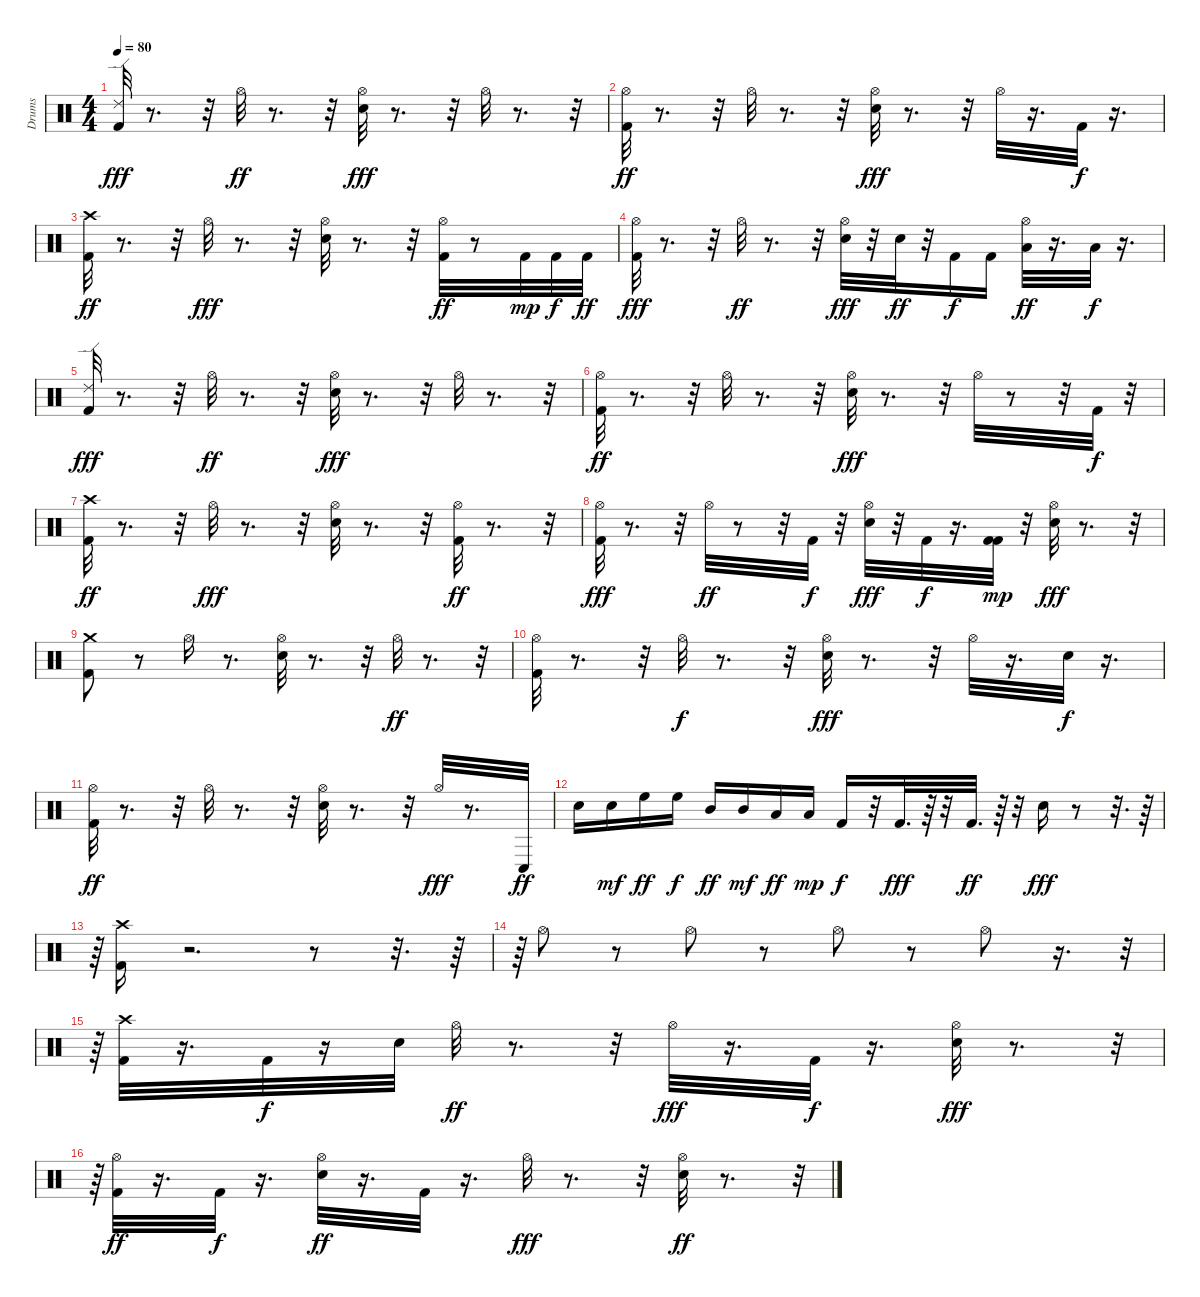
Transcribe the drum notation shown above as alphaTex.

\track ("Drums" "Drums") {instrument percussion}
\staff {score}
\articulation defaults
\ts (4 4)
\tempo 80
\clef neutral
\ks c
("Kick (hit) 2" "Ride (edge) 2").32{dy fff} r.8{d} r.32 "Hi-Hat (open)".32{dy ff} r.8{d} r.32 ("Electric Snare (hit)" "Hi-Hat (open)").32{dy fff} r.8{d} r.32 "Hi-Hat (open)".32 r.8{d} r.32 |
("Hi-Hat (open)" "Kick (hit) 2").32{dy ff} r.8{d} r.32 "Hi-Hat (open)".32 r.8{d} r.32 ("Electric Snare (hit)" "Hi-Hat (open)").32{dy fff} r.8{d} r.32 "Hi-Hat (open)".32 r.16{d} "Kick (hit) 2".32{dy f} r.16{d} |
("Crash high (hit)" "Kick (hit) 2").32{dy ff} r.8{d} r.32 "Hi-Hat (open)".32{dy fff} r.8{d} r.32 ("Hi-Hat (open)" "Electric Snare (hit)").32 r.8{d} r.32 ("Hi-Hat (open)" "Kick (hit) 2").32{dy ff} r.8 "Kick (hit) 2".32{dy mp} "Kick (hit) 2".32{dy f} "Kick (hit) 2".32{dy ff} |
("Kick (hit) 2" "Hi-Hat (open)").32{dy fff} r.8{d} r.32 "Hi-Hat (open)".32{dy ff} r.8{d} r.32 ("Electric Snare (hit)" "Hi-Hat (open)").32{dy fff} r.32 "Electric Snare (hit)".32{dy ff} r.32 "Kick (hit) 2".16{dy f} "Kick (hit) 2".16 ("Low Tom (hit)" "Hi-Hat (open)").32{dy ff} r.16{d} "Low Floor Tom (hit)".32{dy f} r.16{d} |
("Kick (hit) 2" "Ride (edge) 2").32{dy fff} r.8{d} r.32 "Hi-Hat (open)".32{dy ff} r.8{d} r.32 ("Electric Snare (hit)" "Hi-Hat (open)").32{dy fff} r.8{d} r.32 "Hi-Hat (open)".32 r.8{d} r.32 |
("Hi-Hat (open)" "Kick (hit) 2").32{dy ff} r.8{d} r.32 "Hi-Hat (open)".32 r.8{d} r.32 ("Electric Snare (hit)" "Hi-Hat (open)").32{dy fff} r.8{d} r.32 "Hi-Hat (open)".32 r.8 r.32 "Kick (hit) 2".32{dy f} r.32 |
("Crash high (hit)" "Kick (hit) 2").32{dy ff} r.8{d} r.32 "Hi-Hat (open)".32{dy fff} r.8{d} r.32 ("Hi-Hat (open)" "Electric Snare (hit)").32 r.8{d} r.32 ("Hi-Hat (open)" "Kick (hit) 2").32{dy ff} r.8{d} r.32 |
("Kick (hit) 2" "Hi-Hat (open)").32{dy fff} r.8{d} r.32 "Hi-Hat (open)".32{dy ff} r.8 r.32 "Kick (hit) 2".32{dy f} r.32 ("Electric Snare (hit)" "Hi-Hat (open)").32{dy fff} r.32 "Kick (hit) 2".32{dy f} r.16{d} ("Kick (hit) 2" "Kick (hit) 2").32{dy mp} r.32 ("Hi-Hat (open)" "Electric Snare (hit)").32{dy fff} r.8{d} r.32 |
("Kick (hit) 2" "Crash medium (hit)").8 r.8 "Hi-Hat (open)".16 r.8{d} ("Electric Snare (hit)" "Hi-Hat (open)").32 r.8{d} r.32 "Hi-Hat (open)".32{dy ff} r.8{d} r.32 |
("Hi-Hat (open)" "Kick (hit) 2").32 r.8{d} r.32 "Hi-Hat (open)".32{dy f} r.8{d} r.32 ("Electric Snare (hit)" "Hi-Hat (open)").32{dy fff} r.8{d} r.32 "Hi-Hat (open)".32 r.16{d} "Electric Snare (hit)".32{dy f} r.16{d} |
("Hi-Hat (open)" "Kick (hit) 2").32{dy ff} r.8{d} r.32 "Hi-Hat (open)".32 r.8{d} r.32 ("Electric Snare (hit)" "Hi-Hat (open)").32 r.8{d} r.32 "Hi-Hat (open)".32{dy fff} r.8{d} "Conga low (hit)".32{dy ff} |
"Electric Snare (hit)".16 "Electric Snare (hit)".16{dy mf} "High Floor Tom (hit)".16{dy ff} "High Floor Tom (hit)".16{dy f} "Mid Tom (hit)".16{dy ff} "Mid Tom (hit)".16{dy mf} "Low Floor Tom (hit)".16{dy ff} "Low Floor Tom (hit)".16{dy mp} "Kick (hit) 2".16{dy f} r.32 "Kick (hit) 2".32{d dy fff} r.64 r.32 "Kick (hit) 2".32{d dy ff} r.64 r.32 "Snare (hit) 2".16{dy fff} r.8 r.32{d} r.64 |
r.64{tu (3 2)} ("Kick (hit) 2" "Crash high (hit)").16 r.2{d} r.8 r.32{d} r.64 |
r.64{tu (3 2)} "Hi-Hat (open)".8 r.8 "Hi-Hat (open)".8 r.8 "Hi-Hat (open)".8 r.8 "Hi-Hat (open)".8 r.16{d} r.32{tu (3 2)} |
r.64{tu (3 2)} ("Crash high (hit)" "Kick (hit) 2").32 r.16{d} "Kick (hit) 2".32{dy f} r.16 "Electric Snare (hit)".32 "Hi-Hat (open)".32{dy ff} r.8{d} r.32 "Hi-Hat (open)".32{dy fff} r.16{d} "Kick (hit) 2".32{dy f} r.16{d} ("Electric Snare (hit)" "Hi-Hat (open)").32{dy fff} r.8{d} r.32{tu (3 2)} |
r.64{tu (3 2)} ("Hi-Hat (open)" "Kick (hit) 2").32{dy ff} r.16{d} "Kick (hit) 2".32{dy f} r.16{d} ("Electric Snare (hit)" "Hi-Hat (open)").32{dy ff} r.16{d} "Kick (hit) 2".32 r.16{d} "Hi-Hat (open)".32{dy fff} r.8{d} r.32 ("Hi-Hat (open)" "Electric Snare (hit)").32{dy ff} r.8{d} r.32{tu (3 2)}
